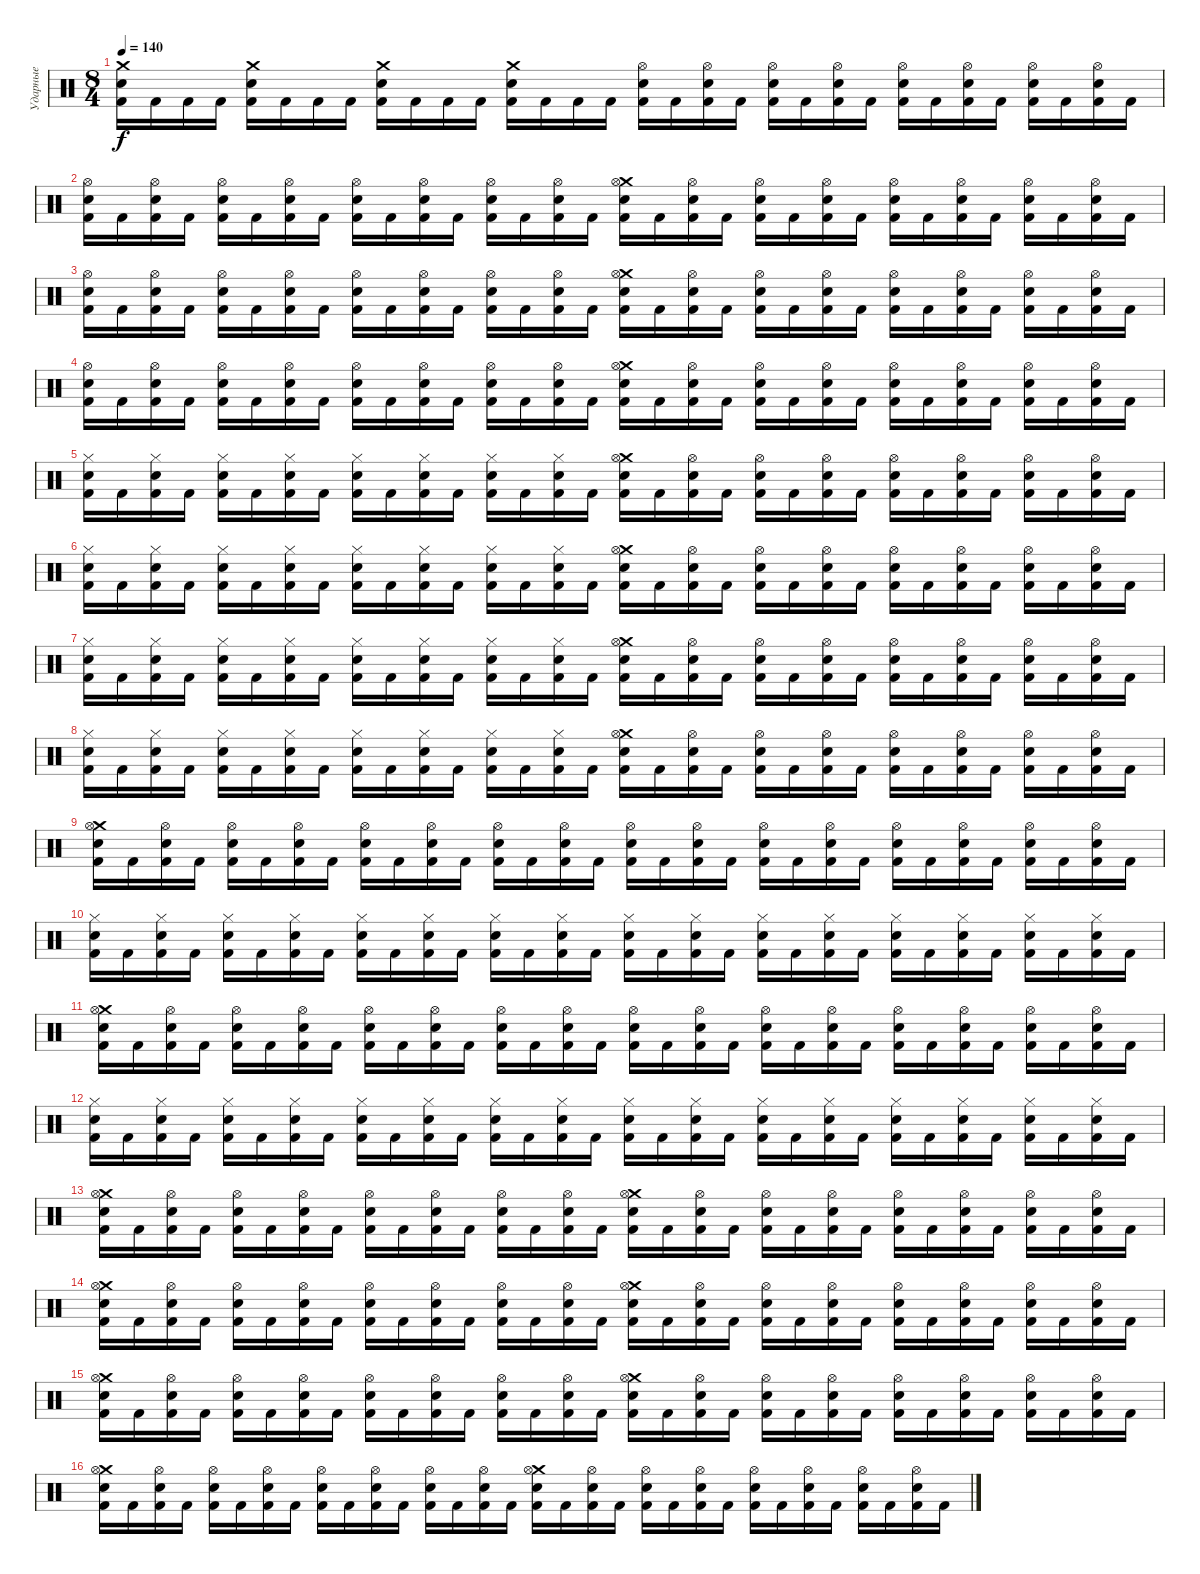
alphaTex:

\track ("Ударные" "Ударные") {instrument percussion}
\staff {score}
\articulation defaults
\ts (8 4)
\tempo 140
\clef neutral
\ks c
("Crash medium (hit)" "Snare (hit) 2" "Kick (hit) 2").16{dy f} "Kick (hit) 2".16 "Kick (hit) 2".16 "Kick (hit) 2".16 ("Crash medium (hit)" "Snare (hit) 2" "Kick (hit) 2").16 "Kick (hit) 2".16 "Kick (hit) 2".16 "Kick (hit) 2".16 ("Crash medium (hit)" "Snare (hit) 2" "Kick (hit) 2").16 "Kick (hit) 2".16 "Kick (hit) 2".16 "Kick (hit) 2".16 ("Crash medium (hit)" "Snare (hit) 2" "Kick (hit) 2").16 "Kick (hit) 2".16 "Kick (hit) 2".16 "Kick (hit) 2".16 ("Hi-Hat (open)" "Snare (hit) 2" "Kick (hit) 2").16 "Kick (hit) 2".16 ("Hi-Hat (open)" "Snare (hit) 2" "Kick (hit) 2").16 "Kick (hit) 2".16 ("Hi-Hat (open)" "Snare (hit) 2" "Kick (hit) 2").16 "Kick (hit) 2".16 ("Hi-Hat (open)" "Snare (hit) 2" "Kick (hit) 2").16 "Kick (hit) 2".16 ("Hi-Hat (open)" "Snare (hit) 2" "Kick (hit) 2").16 "Kick (hit) 2".16 ("Hi-Hat (open)" "Snare (hit) 2" "Kick (hit) 2").16 "Kick (hit) 2".16 ("Hi-Hat (open)" "Snare (hit) 2" "Kick (hit) 2").16 "Kick (hit) 2".16 ("Hi-Hat (open)" "Snare (hit) 2" "Kick (hit) 2").16 "Kick (hit) 2".16 |
("Hi-Hat (open)" "Snare (hit) 2" "Kick (hit) 2").16 "Kick (hit) 2".16 ("Hi-Hat (open)" "Snare (hit) 2" "Kick (hit) 2").16 "Kick (hit) 2".16 ("Hi-Hat (open)" "Snare (hit) 2" "Kick (hit) 2").16 "Kick (hit) 2".16 ("Hi-Hat (open)" "Snare (hit) 2" "Kick (hit) 2").16 "Kick (hit) 2".16 ("Hi-Hat (open)" "Snare (hit) 2" "Kick (hit) 2").16 "Kick (hit) 2".16 ("Hi-Hat (open)" "Snare (hit) 2" "Kick (hit) 2").16 "Kick (hit) 2".16 ("Hi-Hat (open)" "Snare (hit) 2" "Kick (hit) 2").16 "Kick (hit) 2".16 ("Hi-Hat (open)" "Snare (hit) 2" "Kick (hit) 2").16 "Kick (hit) 2".16 ("Crash medium (hit)" "Hi-Hat (open)" "Snare (hit) 2" "Kick (hit) 2").16 "Kick (hit) 2".16 ("Hi-Hat (open)" "Snare (hit) 2" "Kick (hit) 2").16 "Kick (hit) 2".16 ("Hi-Hat (open)" "Snare (hit) 2" "Kick (hit) 2").16 "Kick (hit) 2".16 ("Hi-Hat (open)" "Snare (hit) 2" "Kick (hit) 2").16 "Kick (hit) 2".16 ("Hi-Hat (open)" "Snare (hit) 2" "Kick (hit) 2").16 "Kick (hit) 2".16 ("Hi-Hat (open)" "Snare (hit) 2" "Kick (hit) 2").16 "Kick (hit) 2".16 ("Hi-Hat (open)" "Snare (hit) 2" "Kick (hit) 2").16 "Kick (hit) 2".16 ("Hi-Hat (open)" "Snare (hit) 2" "Kick (hit) 2").16 "Kick (hit) 2".16 |
("Hi-Hat (open)" "Snare (hit) 2" "Kick (hit) 2").16 "Kick (hit) 2".16 ("Hi-Hat (open)" "Snare (hit) 2" "Kick (hit) 2").16 "Kick (hit) 2".16 ("Hi-Hat (open)" "Snare (hit) 2" "Kick (hit) 2").16 "Kick (hit) 2".16 ("Hi-Hat (open)" "Snare (hit) 2" "Kick (hit) 2").16 "Kick (hit) 2".16 ("Hi-Hat (open)" "Snare (hit) 2" "Kick (hit) 2").16 "Kick (hit) 2".16 ("Hi-Hat (open)" "Snare (hit) 2" "Kick (hit) 2").16 "Kick (hit) 2".16 ("Hi-Hat (open)" "Snare (hit) 2" "Kick (hit) 2").16 "Kick (hit) 2".16 ("Hi-Hat (open)" "Snare (hit) 2" "Kick (hit) 2").16 "Kick (hit) 2".16 ("Crash medium (hit)" "Hi-Hat (open)" "Snare (hit) 2" "Kick (hit) 2").16 "Kick (hit) 2".16 ("Hi-Hat (open)" "Snare (hit) 2" "Kick (hit) 2").16 "Kick (hit) 2".16 ("Hi-Hat (open)" "Snare (hit) 2" "Kick (hit) 2").16 "Kick (hit) 2".16 ("Hi-Hat (open)" "Snare (hit) 2" "Kick (hit) 2").16 "Kick (hit) 2".16 ("Hi-Hat (open)" "Snare (hit) 2" "Kick (hit) 2").16 "Kick (hit) 2".16 ("Hi-Hat (open)" "Snare (hit) 2" "Kick (hit) 2").16 "Kick (hit) 2".16 ("Hi-Hat (open)" "Snare (hit) 2" "Kick (hit) 2").16 "Kick (hit) 2".16 ("Hi-Hat (open)" "Snare (hit) 2" "Kick (hit) 2").16 "Kick (hit) 2".16 |
("Hi-Hat (open)" "Snare (hit) 2" "Kick (hit) 2").16 "Kick (hit) 2".16 ("Hi-Hat (open)" "Snare (hit) 2" "Kick (hit) 2").16 "Kick (hit) 2".16 ("Hi-Hat (open)" "Snare (hit) 2" "Kick (hit) 2").16 "Kick (hit) 2".16 ("Hi-Hat (open)" "Snare (hit) 2" "Kick (hit) 2").16 "Kick (hit) 2".16 ("Hi-Hat (open)" "Snare (hit) 2" "Kick (hit) 2").16 "Kick (hit) 2".16 ("Hi-Hat (open)" "Snare (hit) 2" "Kick (hit) 2").16 "Kick (hit) 2".16 ("Hi-Hat (open)" "Snare (hit) 2" "Kick (hit) 2").16 "Kick (hit) 2".16 ("Hi-Hat (open)" "Snare (hit) 2" "Kick (hit) 2").16 "Kick (hit) 2".16 ("Crash medium (hit)" "Hi-Hat (open)" "Snare (hit) 2" "Kick (hit) 2").16 "Kick (hit) 2".16 ("Hi-Hat (open)" "Snare (hit) 2" "Kick (hit) 2").16 "Kick (hit) 2".16 ("Hi-Hat (open)" "Snare (hit) 2" "Kick (hit) 2").16 "Kick (hit) 2".16 ("Hi-Hat (open)" "Snare (hit) 2" "Kick (hit) 2").16 "Kick (hit) 2".16 ("Hi-Hat (open)" "Snare (hit) 2" "Kick (hit) 2").16 "Kick (hit) 2".16 ("Hi-Hat (open)" "Snare (hit) 2" "Kick (hit) 2").16 "Kick (hit) 2".16 ("Hi-Hat (open)" "Snare (hit) 2" "Kick (hit) 2").16 "Kick (hit) 2".16 ("Hi-Hat (open)" "Snare (hit) 2" "Kick (hit) 2").16 "Kick (hit) 2".16 |
("Hi-Hat (closed)" "Snare (hit) 2" "Kick (hit) 2").16 "Kick (hit) 2".16 ("Hi-Hat (closed)" "Snare (hit) 2" "Kick (hit) 2").16 "Kick (hit) 2".16 ("Hi-Hat (closed)" "Snare (hit) 2" "Kick (hit) 2").16 "Kick (hit) 2".16 ("Hi-Hat (closed)" "Snare (hit) 2" "Kick (hit) 2").16 "Kick (hit) 2".16 ("Hi-Hat (closed)" "Snare (hit) 2" "Kick (hit) 2").16 "Kick (hit) 2".16 ("Hi-Hat (closed)" "Snare (hit) 2" "Kick (hit) 2").16 "Kick (hit) 2".16 ("Hi-Hat (closed)" "Snare (hit) 2" "Kick (hit) 2").16 "Kick (hit) 2".16 ("Hi-Hat (closed)" "Snare (hit) 2" "Kick (hit) 2").16 "Kick (hit) 2".16 ("Crash medium (hit)" "Hi-Hat (open)" "Snare (hit) 2" "Kick (hit) 2").16 "Kick (hit) 2".16 ("Hi-Hat (open)" "Snare (hit) 2" "Kick (hit) 2").16 "Kick (hit) 2".16 ("Hi-Hat (open)" "Snare (hit) 2" "Kick (hit) 2").16 "Kick (hit) 2".16 ("Hi-Hat (open)" "Snare (hit) 2" "Kick (hit) 2").16 "Kick (hit) 2".16 ("Hi-Hat (open)" "Snare (hit) 2" "Kick (hit) 2").16 "Kick (hit) 2".16 ("Hi-Hat (open)" "Snare (hit) 2" "Kick (hit) 2").16 "Kick (hit) 2".16 ("Hi-Hat (open)" "Snare (hit) 2" "Kick (hit) 2").16 "Kick (hit) 2".16 ("Hi-Hat (open)" "Snare (hit) 2" "Kick (hit) 2").16 "Kick (hit) 2".16 |
("Hi-Hat (closed)" "Snare (hit) 2" "Kick (hit) 2").16 "Kick (hit) 2".16 ("Hi-Hat (closed)" "Snare (hit) 2" "Kick (hit) 2").16 "Kick (hit) 2".16 ("Hi-Hat (closed)" "Snare (hit) 2" "Kick (hit) 2").16 "Kick (hit) 2".16 ("Hi-Hat (closed)" "Snare (hit) 2" "Kick (hit) 2").16 "Kick (hit) 2".16 ("Hi-Hat (closed)" "Snare (hit) 2" "Kick (hit) 2").16 "Kick (hit) 2".16 ("Hi-Hat (closed)" "Snare (hit) 2" "Kick (hit) 2").16 "Kick (hit) 2".16 ("Hi-Hat (closed)" "Snare (hit) 2" "Kick (hit) 2").16 "Kick (hit) 2".16 ("Hi-Hat (closed)" "Snare (hit) 2" "Kick (hit) 2").16 "Kick (hit) 2".16 ("Crash medium (hit)" "Hi-Hat (open)" "Snare (hit) 2" "Kick (hit) 2").16 "Kick (hit) 2".16 ("Hi-Hat (open)" "Snare (hit) 2" "Kick (hit) 2").16 "Kick (hit) 2".16 ("Hi-Hat (open)" "Snare (hit) 2" "Kick (hit) 2").16 "Kick (hit) 2".16 ("Hi-Hat (open)" "Snare (hit) 2" "Kick (hit) 2").16 "Kick (hit) 2".16 ("Hi-Hat (open)" "Snare (hit) 2" "Kick (hit) 2").16 "Kick (hit) 2".16 ("Hi-Hat (open)" "Snare (hit) 2" "Kick (hit) 2").16 "Kick (hit) 2".16 ("Hi-Hat (open)" "Snare (hit) 2" "Kick (hit) 2").16 "Kick (hit) 2".16 ("Hi-Hat (open)" "Snare (hit) 2" "Kick (hit) 2").16 "Kick (hit) 2".16 |
("Hi-Hat (closed)" "Snare (hit) 2" "Kick (hit) 2").16 "Kick (hit) 2".16 ("Hi-Hat (closed)" "Snare (hit) 2" "Kick (hit) 2").16 "Kick (hit) 2".16 ("Hi-Hat (closed)" "Snare (hit) 2" "Kick (hit) 2").16 "Kick (hit) 2".16 ("Hi-Hat (closed)" "Snare (hit) 2" "Kick (hit) 2").16 "Kick (hit) 2".16 ("Hi-Hat (closed)" "Snare (hit) 2" "Kick (hit) 2").16 "Kick (hit) 2".16 ("Hi-Hat (closed)" "Snare (hit) 2" "Kick (hit) 2").16 "Kick (hit) 2".16 ("Hi-Hat (closed)" "Snare (hit) 2" "Kick (hit) 2").16 "Kick (hit) 2".16 ("Hi-Hat (closed)" "Snare (hit) 2" "Kick (hit) 2").16 "Kick (hit) 2".16 ("Crash medium (hit)" "Hi-Hat (open)" "Snare (hit) 2" "Kick (hit) 2").16 "Kick (hit) 2".16 ("Hi-Hat (open)" "Snare (hit) 2" "Kick (hit) 2").16 "Kick (hit) 2".16 ("Hi-Hat (open)" "Snare (hit) 2" "Kick (hit) 2").16 "Kick (hit) 2".16 ("Hi-Hat (open)" "Snare (hit) 2" "Kick (hit) 2").16 "Kick (hit) 2".16 ("Hi-Hat (open)" "Snare (hit) 2" "Kick (hit) 2").16 "Kick (hit) 2".16 ("Hi-Hat (open)" "Snare (hit) 2" "Kick (hit) 2").16 "Kick (hit) 2".16 ("Hi-Hat (open)" "Snare (hit) 2" "Kick (hit) 2").16 "Kick (hit) 2".16 ("Hi-Hat (open)" "Snare (hit) 2" "Kick (hit) 2").16 "Kick (hit) 2".16 |
("Hi-Hat (closed)" "Snare (hit) 2" "Kick (hit) 2").16 "Kick (hit) 2".16 ("Hi-Hat (closed)" "Snare (hit) 2" "Kick (hit) 2").16 "Kick (hit) 2".16 ("Hi-Hat (closed)" "Snare (hit) 2" "Kick (hit) 2").16 "Kick (hit) 2".16 ("Hi-Hat (closed)" "Snare (hit) 2" "Kick (hit) 2").16 "Kick (hit) 2".16 ("Hi-Hat (closed)" "Snare (hit) 2" "Kick (hit) 2").16 "Kick (hit) 2".16 ("Hi-Hat (closed)" "Snare (hit) 2" "Kick (hit) 2").16 "Kick (hit) 2".16 ("Hi-Hat (closed)" "Snare (hit) 2" "Kick (hit) 2").16 "Kick (hit) 2".16 ("Hi-Hat (closed)" "Snare (hit) 2" "Kick (hit) 2").16 "Kick (hit) 2".16 ("Crash medium (hit)" "Hi-Hat (open)" "Snare (hit) 2" "Kick (hit) 2").16 "Kick (hit) 2".16 ("Hi-Hat (open)" "Snare (hit) 2" "Kick (hit) 2").16 "Kick (hit) 2".16 ("Hi-Hat (open)" "Snare (hit) 2" "Kick (hit) 2").16 "Kick (hit) 2".16 ("Hi-Hat (open)" "Snare (hit) 2" "Kick (hit) 2").16 "Kick (hit) 2".16 ("Hi-Hat (open)" "Snare (hit) 2" "Kick (hit) 2").16 "Kick (hit) 2".16 ("Hi-Hat (open)" "Snare (hit) 2" "Kick (hit) 2").16 "Kick (hit) 2".16 ("Hi-Hat (open)" "Snare (hit) 2" "Kick (hit) 2").16 "Kick (hit) 2".16 ("Hi-Hat (open)" "Snare (hit) 2" "Kick (hit) 2").16 "Kick (hit) 2".16 |
("Crash medium (hit)" "Hi-Hat (open)" "Snare (hit) 2" "Kick (hit) 2").16 "Kick (hit) 2".16 ("Hi-Hat (open)" "Snare (hit) 2" "Kick (hit) 2").16 "Kick (hit) 2".16 ("Hi-Hat (open)" "Snare (hit) 2" "Kick (hit) 2").16 "Kick (hit) 2".16 ("Hi-Hat (open)" "Snare (hit) 2" "Kick (hit) 2").16 "Kick (hit) 2".16 ("Hi-Hat (open)" "Snare (hit) 2" "Kick (hit) 2").16 "Kick (hit) 2".16 ("Hi-Hat (open)" "Snare (hit) 2" "Kick (hit) 2").16 "Kick (hit) 2".16 ("Hi-Hat (open)" "Snare (hit) 2" "Kick (hit) 2").16 "Kick (hit) 2".16 ("Hi-Hat (open)" "Snare (hit) 2" "Kick (hit) 2").16 "Kick (hit) 2".16 ("Hi-Hat (open)" "Snare (hit) 2" "Kick (hit) 2").16 "Kick (hit) 2".16 ("Hi-Hat (open)" "Snare (hit) 2" "Kick (hit) 2").16 "Kick (hit) 2".16 ("Hi-Hat (open)" "Snare (hit) 2" "Kick (hit) 2").16 "Kick (hit) 2".16 ("Hi-Hat (open)" "Snare (hit) 2" "Kick (hit) 2").16 "Kick (hit) 2".16 ("Hi-Hat (open)" "Snare (hit) 2" "Kick (hit) 2").16 "Kick (hit) 2".16 ("Hi-Hat (open)" "Snare (hit) 2" "Kick (hit) 2").16 "Kick (hit) 2".16 ("Hi-Hat (open)" "Snare (hit) 2" "Kick (hit) 2").16 "Kick (hit) 2".16 ("Hi-Hat (open)" "Snare (hit) 2" "Kick (hit) 2").16 "Kick (hit) 2".16 |
("Hi-Hat (closed)" "Snare (hit) 2" "Kick (hit) 2").16 "Kick (hit) 2".16 ("Hi-Hat (closed)" "Snare (hit) 2" "Kick (hit) 2").16 "Kick (hit) 2".16 ("Hi-Hat (closed)" "Snare (hit) 2" "Kick (hit) 2").16 "Kick (hit) 2".16 ("Hi-Hat (closed)" "Snare (hit) 2" "Kick (hit) 2").16 "Kick (hit) 2".16 ("Hi-Hat (closed)" "Snare (hit) 2" "Kick (hit) 2").16 "Kick (hit) 2".16 ("Hi-Hat (closed)" "Snare (hit) 2" "Kick (hit) 2").16 "Kick (hit) 2".16 ("Hi-Hat (closed)" "Snare (hit) 2" "Kick (hit) 2").16 "Kick (hit) 2".16 ("Hi-Hat (closed)" "Snare (hit) 2" "Kick (hit) 2").16 "Kick (hit) 2".16 ("Hi-Hat (closed)" "Snare (hit) 2" "Kick (hit) 2").16 "Kick (hit) 2".16 ("Hi-Hat (closed)" "Snare (hit) 2" "Kick (hit) 2").16 "Kick (hit) 2".16 ("Hi-Hat (closed)" "Snare (hit) 2" "Kick (hit) 2").16 "Kick (hit) 2".16 ("Hi-Hat (closed)" "Snare (hit) 2" "Kick (hit) 2").16 "Kick (hit) 2".16 ("Hi-Hat (closed)" "Snare (hit) 2" "Kick (hit) 2").16 "Kick (hit) 2".16 ("Hi-Hat (closed)" "Snare (hit) 2" "Kick (hit) 2").16 "Kick (hit) 2".16 ("Hi-Hat (closed)" "Snare (hit) 2" "Kick (hit) 2").16 "Kick (hit) 2".16 ("Hi-Hat (closed)" "Snare (hit) 2" "Kick (hit) 2").16 "Kick (hit) 2".16 |
("Crash medium (hit)" "Hi-Hat (open)" "Snare (hit) 2" "Kick (hit) 2").16 "Kick (hit) 2".16 ("Hi-Hat (open)" "Snare (hit) 2" "Kick (hit) 2").16 "Kick (hit) 2".16 ("Hi-Hat (open)" "Snare (hit) 2" "Kick (hit) 2").16 "Kick (hit) 2".16 ("Hi-Hat (open)" "Snare (hit) 2" "Kick (hit) 2").16 "Kick (hit) 2".16 ("Hi-Hat (open)" "Snare (hit) 2" "Kick (hit) 2").16 "Kick (hit) 2".16 ("Hi-Hat (open)" "Snare (hit) 2" "Kick (hit) 2").16 "Kick (hit) 2".16 ("Hi-Hat (open)" "Snare (hit) 2" "Kick (hit) 2").16 "Kick (hit) 2".16 ("Hi-Hat (open)" "Snare (hit) 2" "Kick (hit) 2").16 "Kick (hit) 2".16 ("Hi-Hat (open)" "Snare (hit) 2" "Kick (hit) 2").16 "Kick (hit) 2".16 ("Hi-Hat (open)" "Snare (hit) 2" "Kick (hit) 2").16 "Kick (hit) 2".16 ("Hi-Hat (open)" "Snare (hit) 2" "Kick (hit) 2").16 "Kick (hit) 2".16 ("Hi-Hat (open)" "Snare (hit) 2" "Kick (hit) 2").16 "Kick (hit) 2".16 ("Hi-Hat (open)" "Snare (hit) 2" "Kick (hit) 2").16 "Kick (hit) 2".16 ("Hi-Hat (open)" "Snare (hit) 2" "Kick (hit) 2").16 "Kick (hit) 2".16 ("Hi-Hat (open)" "Snare (hit) 2" "Kick (hit) 2").16 "Kick (hit) 2".16 ("Hi-Hat (open)" "Snare (hit) 2" "Kick (hit) 2").16 "Kick (hit) 2".16 |
("Hi-Hat (closed)" "Snare (hit) 2" "Kick (hit) 2").16 "Kick (hit) 2".16 ("Hi-Hat (closed)" "Snare (hit) 2" "Kick (hit) 2").16 "Kick (hit) 2".16 ("Hi-Hat (closed)" "Snare (hit) 2" "Kick (hit) 2").16 "Kick (hit) 2".16 ("Hi-Hat (closed)" "Snare (hit) 2" "Kick (hit) 2").16 "Kick (hit) 2".16 ("Hi-Hat (closed)" "Snare (hit) 2" "Kick (hit) 2").16 "Kick (hit) 2".16 ("Hi-Hat (closed)" "Snare (hit) 2" "Kick (hit) 2").16 "Kick (hit) 2".16 ("Hi-Hat (closed)" "Snare (hit) 2" "Kick (hit) 2").16 "Kick (hit) 2".16 ("Hi-Hat (closed)" "Snare (hit) 2" "Kick (hit) 2").16 "Kick (hit) 2".16 ("Hi-Hat (closed)" "Snare (hit) 2" "Kick (hit) 2").16 "Kick (hit) 2".16 ("Hi-Hat (closed)" "Snare (hit) 2" "Kick (hit) 2").16 "Kick (hit) 2".16 ("Hi-Hat (closed)" "Snare (hit) 2" "Kick (hit) 2").16 "Kick (hit) 2".16 ("Hi-Hat (closed)" "Snare (hit) 2" "Kick (hit) 2").16 "Kick (hit) 2".16 ("Hi-Hat (closed)" "Snare (hit) 2" "Kick (hit) 2").16 "Kick (hit) 2".16 ("Hi-Hat (closed)" "Snare (hit) 2" "Kick (hit) 2").16 "Kick (hit) 2".16 ("Hi-Hat (closed)" "Snare (hit) 2" "Kick (hit) 2").16 "Kick (hit) 2".16 ("Hi-Hat (closed)" "Snare (hit) 2" "Kick (hit) 2").16 "Kick (hit) 2".16 |
("Crash medium (hit)" "Hi-Hat (open)" "Snare (hit) 2" "Kick (hit) 2").16 "Kick (hit) 2".16 ("Hi-Hat (open)" "Snare (hit) 2" "Kick (hit) 2").16 "Kick (hit) 2".16 ("Hi-Hat (open)" "Snare (hit) 2" "Kick (hit) 2").16 "Kick (hit) 2".16 ("Hi-Hat (open)" "Snare (hit) 2" "Kick (hit) 2").16 "Kick (hit) 2".16 ("Hi-Hat (open)" "Snare (hit) 2" "Kick (hit) 2").16 "Kick (hit) 2".16 ("Hi-Hat (open)" "Snare (hit) 2" "Kick (hit) 2").16 "Kick (hit) 2".16 ("Hi-Hat (open)" "Snare (hit) 2" "Kick (hit) 2").16 "Kick (hit) 2".16 ("Hi-Hat (open)" "Snare (hit) 2" "Kick (hit) 2").16 "Kick (hit) 2".16 ("Crash medium (hit)" "Hi-Hat (open)" "Snare (hit) 2" "Kick (hit) 2").16 "Kick (hit) 2".16 ("Hi-Hat (open)" "Snare (hit) 2" "Kick (hit) 2").16 "Kick (hit) 2".16 ("Hi-Hat (open)" "Snare (hit) 2" "Kick (hit) 2").16 "Kick (hit) 2".16 ("Hi-Hat (open)" "Snare (hit) 2" "Kick (hit) 2").16 "Kick (hit) 2".16 ("Hi-Hat (open)" "Snare (hit) 2" "Kick (hit) 2").16 "Kick (hit) 2".16 ("Hi-Hat (open)" "Snare (hit) 2" "Kick (hit) 2").16 "Kick (hit) 2".16 ("Hi-Hat (open)" "Snare (hit) 2" "Kick (hit) 2").16 "Kick (hit) 2".16 ("Hi-Hat (open)" "Snare (hit) 2" "Kick (hit) 2").16 "Kick (hit) 2".16 |
("Crash medium (hit)" "Hi-Hat (open)" "Snare (hit) 2" "Kick (hit) 2").16 "Kick (hit) 2".16 ("Hi-Hat (open)" "Snare (hit) 2" "Kick (hit) 2").16 "Kick (hit) 2".16 ("Hi-Hat (open)" "Snare (hit) 2" "Kick (hit) 2").16 "Kick (hit) 2".16 ("Hi-Hat (open)" "Snare (hit) 2" "Kick (hit) 2").16 "Kick (hit) 2".16 ("Hi-Hat (open)" "Snare (hit) 2" "Kick (hit) 2").16 "Kick (hit) 2".16 ("Hi-Hat (open)" "Snare (hit) 2" "Kick (hit) 2").16 "Kick (hit) 2".16 ("Hi-Hat (open)" "Snare (hit) 2" "Kick (hit) 2").16 "Kick (hit) 2".16 ("Hi-Hat (open)" "Snare (hit) 2" "Kick (hit) 2").16 "Kick (hit) 2".16 ("Crash medium (hit)" "Hi-Hat (open)" "Snare (hit) 2" "Kick (hit) 2").16 "Kick (hit) 2".16 ("Hi-Hat (open)" "Snare (hit) 2" "Kick (hit) 2").16 "Kick (hit) 2".16 ("Hi-Hat (open)" "Snare (hit) 2" "Kick (hit) 2").16 "Kick (hit) 2".16 ("Hi-Hat (open)" "Snare (hit) 2" "Kick (hit) 2").16 "Kick (hit) 2".16 ("Hi-Hat (open)" "Snare (hit) 2" "Kick (hit) 2").16 "Kick (hit) 2".16 ("Hi-Hat (open)" "Snare (hit) 2" "Kick (hit) 2").16 "Kick (hit) 2".16 ("Hi-Hat (open)" "Snare (hit) 2" "Kick (hit) 2").16 "Kick (hit) 2".16 ("Hi-Hat (open)" "Snare (hit) 2" "Kick (hit) 2").16 "Kick (hit) 2".16 |
("Crash medium (hit)" "Hi-Hat (open)" "Snare (hit) 2" "Kick (hit) 2").16 "Kick (hit) 2".16 ("Hi-Hat (open)" "Snare (hit) 2" "Kick (hit) 2").16 "Kick (hit) 2".16 ("Hi-Hat (open)" "Snare (hit) 2" "Kick (hit) 2").16 "Kick (hit) 2".16 ("Hi-Hat (open)" "Snare (hit) 2" "Kick (hit) 2").16 "Kick (hit) 2".16 ("Hi-Hat (open)" "Snare (hit) 2" "Kick (hit) 2").16 "Kick (hit) 2".16 ("Hi-Hat (open)" "Snare (hit) 2" "Kick (hit) 2").16 "Kick (hit) 2".16 ("Hi-Hat (open)" "Snare (hit) 2" "Kick (hit) 2").16 "Kick (hit) 2".16 ("Hi-Hat (open)" "Snare (hit) 2" "Kick (hit) 2").16 "Kick (hit) 2".16 ("Crash medium (hit)" "Hi-Hat (open)" "Snare (hit) 2" "Kick (hit) 2").16 "Kick (hit) 2".16 ("Hi-Hat (open)" "Snare (hit) 2" "Kick (hit) 2").16 "Kick (hit) 2".16 ("Hi-Hat (open)" "Snare (hit) 2" "Kick (hit) 2").16 "Kick (hit) 2".16 ("Hi-Hat (open)" "Snare (hit) 2" "Kick (hit) 2").16 "Kick (hit) 2".16 ("Hi-Hat (open)" "Snare (hit) 2" "Kick (hit) 2").16 "Kick (hit) 2".16 ("Hi-Hat (open)" "Snare (hit) 2" "Kick (hit) 2").16 "Kick (hit) 2".16 ("Hi-Hat (open)" "Snare (hit) 2" "Kick (hit) 2").16 "Kick (hit) 2".16 ("Hi-Hat (open)" "Snare (hit) 2" "Kick (hit) 2").16 "Kick (hit) 2".16 |
("Crash medium (hit)" "Hi-Hat (open)" "Snare (hit) 2" "Kick (hit) 2").16 "Kick (hit) 2".16 ("Hi-Hat (open)" "Snare (hit) 2" "Kick (hit) 2").16 "Kick (hit) 2".16 ("Hi-Hat (open)" "Snare (hit) 2" "Kick (hit) 2").16 "Kick (hit) 2".16 ("Hi-Hat (open)" "Snare (hit) 2" "Kick (hit) 2").16 "Kick (hit) 2".16 ("Hi-Hat (open)" "Snare (hit) 2" "Kick (hit) 2").16 "Kick (hit) 2".16 ("Hi-Hat (open)" "Snare (hit) 2" "Kick (hit) 2").16 "Kick (hit) 2".16 ("Hi-Hat (open)" "Snare (hit) 2" "Kick (hit) 2").16 "Kick (hit) 2".16 ("Hi-Hat (open)" "Snare (hit) 2" "Kick (hit) 2").16 "Kick (hit) 2".16 ("Crash medium (hit)" "Hi-Hat (open)" "Snare (hit) 2" "Kick (hit) 2").16 "Kick (hit) 2".16 ("Hi-Hat (open)" "Snare (hit) 2" "Kick (hit) 2").16 "Kick (hit) 2".16 ("Hi-Hat (open)" "Snare (hit) 2" "Kick (hit) 2").16 "Kick (hit) 2".16 ("Hi-Hat (open)" "Snare (hit) 2" "Kick (hit) 2").16 "Kick (hit) 2".16 ("Hi-Hat (open)" "Snare (hit) 2" "Kick (hit) 2").16 "Kick (hit) 2".16 ("Hi-Hat (open)" "Snare (hit) 2" "Kick (hit) 2").16 "Kick (hit) 2".16 ("Hi-Hat (open)" "Snare (hit) 2" "Kick (hit) 2").16 "Kick (hit) 2".16 ("Hi-Hat (open)" "Snare (hit) 2" "Kick (hit) 2").16 "Kick (hit) 2".16
